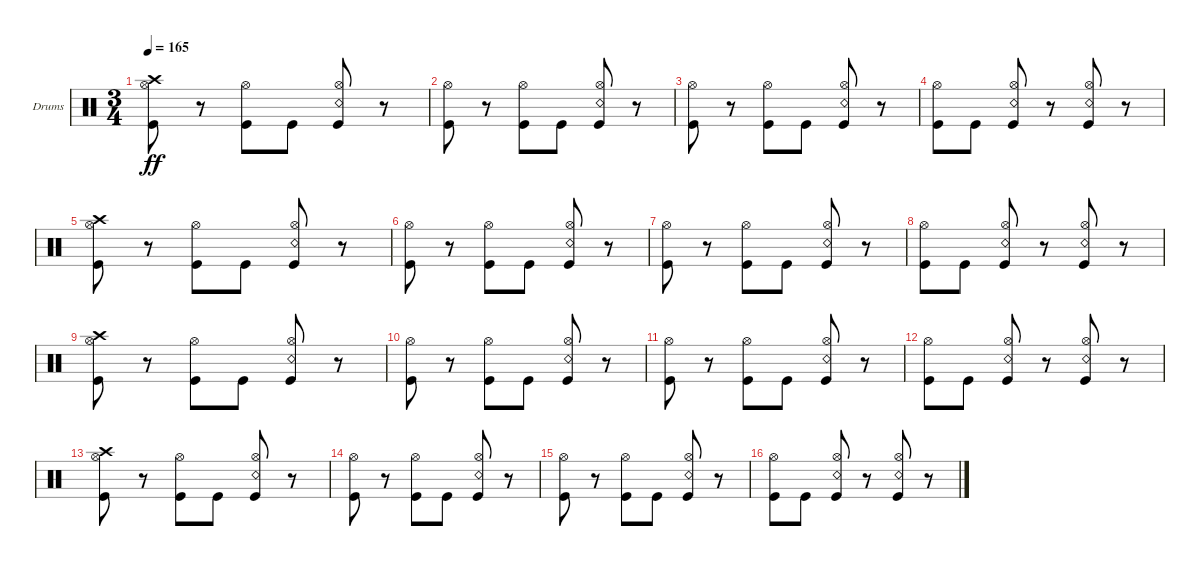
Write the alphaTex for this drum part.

\bracketExtendMode groupsimilarinstruments
\firstSystemTrackNameOrientation horizontal
\otherSystemsTrackNameOrientation horizontal
\track ("Kaleb - Drums" "Drums") {instrument percussion}
\staff {score}
\articulation defaults
\ts (3 4)
\tempo 165
\clef neutral
\ks c
("Kick (hit)" "Hi-Hat (open)" "Crash high (hit)").8{dy ff} r.8 ("Kick (hit)" "Hi-Hat (open)").8 "Kick (hit)".8 ("Kick (hit)" "Snare (rim shot)" "Hi-Hat (open)").8 r.8 |
("Kick (hit)" "Hi-Hat (open)").8 r.8 ("Kick (hit)" "Hi-Hat (open)").8 "Kick (hit)".8 ("Kick (hit)" "Hi-Hat (open)" "Snare (rim shot)").8 r.8 |
("Kick (hit)" "Hi-Hat (open)").8 r.8 ("Kick (hit)" "Hi-Hat (open)").8 "Kick (hit)".8 ("Kick (hit)" "Hi-Hat (open)" "Snare (rim shot)").8 r.8 |
("Kick (hit)" "Hi-Hat (open)").8 "Kick (hit)".8 ("Kick (hit)" "Hi-Hat (open)" "Snare (rim shot)").8 r.8 ("Kick (hit)" "Hi-Hat (open)" "Snare (rim shot)").8 r.8 |
("Kick (hit)" "Hi-Hat (open)" "Crash high (hit)").8 r.8 ("Kick (hit)" "Hi-Hat (open)").8 "Kick (hit)".8 ("Kick (hit)" "Snare (rim shot)" "Hi-Hat (open)").8 r.8 |
("Kick (hit)" "Hi-Hat (open)").8 r.8 ("Kick (hit)" "Hi-Hat (open)").8 "Kick (hit)".8 ("Kick (hit)" "Hi-Hat (open)" "Snare (rim shot)").8 r.8 |
("Kick (hit)" "Hi-Hat (open)").8 r.8 ("Kick (hit)" "Hi-Hat (open)").8 "Kick (hit)".8 ("Kick (hit)" "Hi-Hat (open)" "Snare (rim shot)").8 r.8 |
("Kick (hit)" "Hi-Hat (open)").8 "Kick (hit)".8 ("Kick (hit)" "Hi-Hat (open)" "Snare (rim shot)").8 r.8 ("Kick (hit)" "Hi-Hat (open)" "Snare (rim shot)").8 r.8 |
("Kick (hit)" "Hi-Hat (open)" "Crash high (hit)").8 r.8 ("Kick (hit)" "Hi-Hat (open)").8 "Kick (hit)".8 ("Kick (hit)" "Snare (rim shot)" "Hi-Hat (open)").8 r.8 |
("Kick (hit)" "Hi-Hat (open)").8 r.8 ("Kick (hit)" "Hi-Hat (open)").8 "Kick (hit)".8 ("Kick (hit)" "Hi-Hat (open)" "Snare (rim shot)").8 r.8 |
("Kick (hit)" "Hi-Hat (open)").8 r.8 ("Kick (hit)" "Hi-Hat (open)").8 "Kick (hit)".8 ("Kick (hit)" "Hi-Hat (open)" "Snare (rim shot)").8 r.8 |
("Kick (hit)" "Hi-Hat (open)").8 "Kick (hit)".8 ("Kick (hit)" "Hi-Hat (open)" "Snare (rim shot)").8 r.8 ("Kick (hit)" "Hi-Hat (open)" "Snare (rim shot)").8 r.8 |
("Kick (hit)" "Hi-Hat (open)" "Crash high (hit)").8 r.8 ("Kick (hit)" "Hi-Hat (open)").8 "Kick (hit)".8 ("Kick (hit)" "Snare (rim shot)" "Hi-Hat (open)").8 r.8 |
("Kick (hit)" "Hi-Hat (open)").8 r.8 ("Kick (hit)" "Hi-Hat (open)").8 "Kick (hit)".8 ("Kick (hit)" "Hi-Hat (open)" "Snare (rim shot)").8 r.8 |
("Kick (hit)" "Hi-Hat (open)").8 r.8 ("Kick (hit)" "Hi-Hat (open)").8 "Kick (hit)".8 ("Kick (hit)" "Hi-Hat (open)" "Snare (rim shot)").8 r.8 |
("Kick (hit)" "Hi-Hat (open)").8 "Kick (hit)".8 ("Kick (hit)" "Hi-Hat (open)" "Snare (rim shot)").8 r.8 ("Kick (hit)" "Hi-Hat (open)" "Snare (rim shot)").8 r.8
